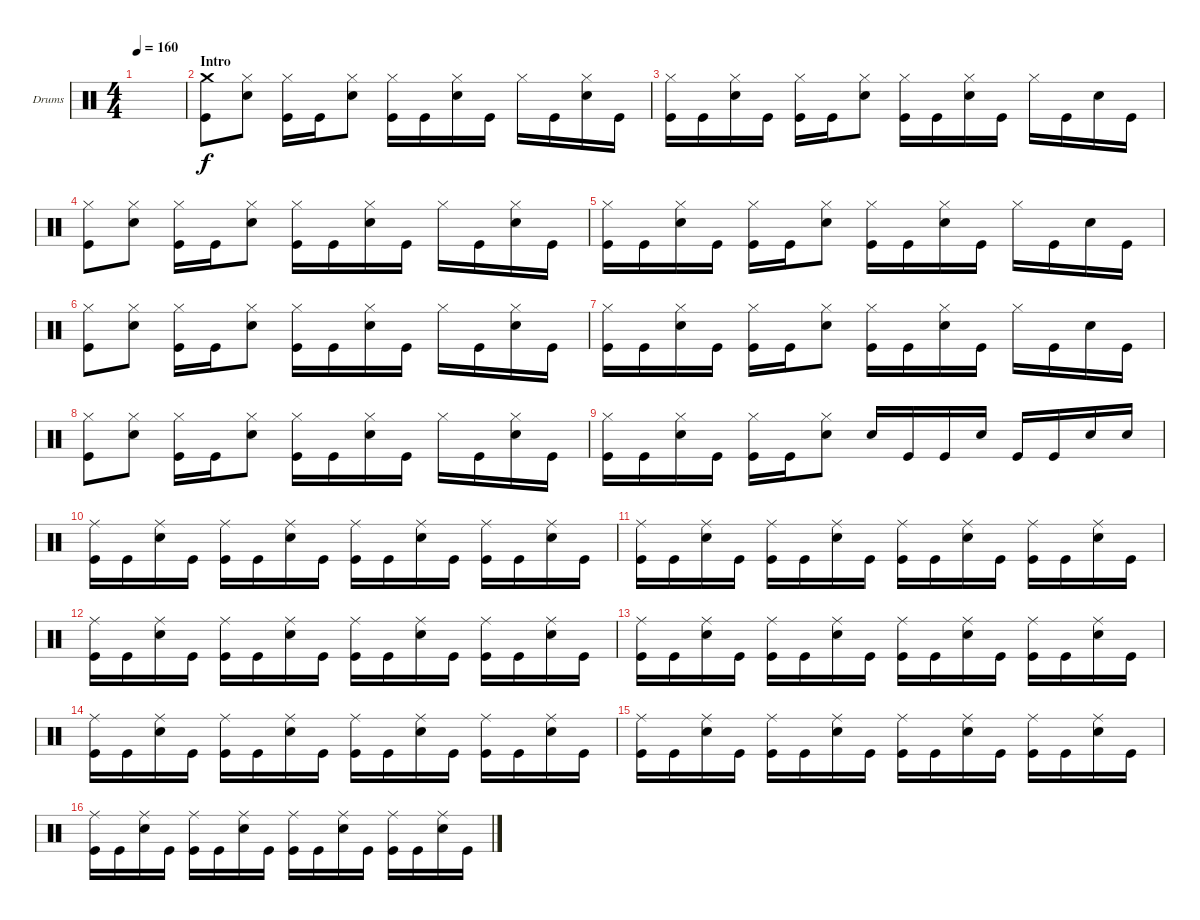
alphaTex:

\defaultSystemsLayout 4
\bracketExtendMode groupsimilarinstruments
\firstSystemTrackNameOrientation horizontal
\otherSystemsTrackNameOrientation horizontal
\track ("Drums" "Drums") {instrument percussion}
\staff {score}
\articulation defaults
\ts (4 4)
\tempo 160
\clef neutral
\scale
0.384906
\ks c
|
\section ("" "Intro")
\scale
0.4
\ks aminor
("Kick (hit)" "Crash medium (hit)").8 ("Snare (hit) 2" "Hi-Hat (closed)").8 ("Kick (hit)" "Hi-Hat (closed)").16 "Kick (hit)".16 ("Snare (hit) 2" "Hi-Hat (closed)").8 ("Kick (hit)" "Hi-Hat (closed)").16 "Kick (hit)".16 ("Snare (hit) 2" "Hi-Hat (closed)").16 "Kick (hit)".16 "Hi-Hat (closed)".16 "Kick (hit)".16 ("Snare (hit) 2" "Hi-Hat (closed)").16 "Kick (hit)".16 |
\scale
0.215094 ("Kick (hit)" "Hi-Hat (closed)").16 "Kick (hit)".16 ("Snare (hit) 2" "Hi-Hat (closed)").16 "Kick (hit)".16 ("Kick (hit)" "Hi-Hat (closed)").16 "Kick (hit)".16 ("Snare (hit) 2" "Hi-Hat (closed)").8 ("Kick (hit)" "Hi-Hat (closed)").16 "Kick (hit)".16 ("Snare (hit) 2" "Hi-Hat (closed)").16 "Kick (hit)".16 "Hi-Hat (closed)".16 "Kick (hit)".16 "Snare (hit) 2".16 "Kick (hit)".16 |
\scale
0.333333 ("Kick (hit)" "Hi-Hat (closed)").8 ("Snare (hit) 2" "Hi-Hat (closed)").8 ("Kick (hit)" "Hi-Hat (closed)").16 "Kick (hit)".16 ("Snare (hit) 2" "Hi-Hat (closed)").8 ("Kick (hit)" "Hi-Hat (closed)").16 "Kick (hit)".16 ("Snare (hit) 2" "Hi-Hat (closed)").16 "Kick (hit)".16 "Hi-Hat (closed)".16 "Kick (hit)".16 ("Snare (hit) 2" "Hi-Hat (closed)").16 "Kick (hit)".16 |
\scale
0.333333 ("Kick (hit)" "Hi-Hat (closed)").16 "Kick (hit)".16 ("Snare (hit) 2" "Hi-Hat (closed)").16 "Kick (hit)".16 ("Kick (hit)" "Hi-Hat (closed)").16 "Kick (hit)".16 ("Snare (hit) 2" "Hi-Hat (closed)").8 ("Kick (hit)" "Hi-Hat (closed)").16 "Kick (hit)".16 ("Snare (hit) 2" "Hi-Hat (closed)").16 "Kick (hit)".16 "Hi-Hat (closed)".16 "Kick (hit)".16 "Snare (hit) 2".16 "Kick (hit)".16 |
\scale
0.333333 ("Kick (hit)" "Hi-Hat (closed)").8 ("Snare (hit) 2" "Hi-Hat (closed)").8 ("Kick (hit)" "Hi-Hat (closed)").16 "Kick (hit)".16 ("Snare (hit) 2" "Hi-Hat (closed)").8 ("Kick (hit)" "Hi-Hat (closed)").16 "Kick (hit)".16 ("Snare (hit) 2" "Hi-Hat (closed)").16 "Kick (hit)".16 "Hi-Hat (closed)".16 "Kick (hit)".16 ("Snare (hit) 2" "Hi-Hat (closed)").16 "Kick (hit)".16 |
\scale
0.333333 ("Kick (hit)" "Hi-Hat (closed)").16 "Kick (hit)".16 ("Snare (hit) 2" "Hi-Hat (closed)").16 "Kick (hit)".16 ("Kick (hit)" "Hi-Hat (closed)").16 "Kick (hit)".16 ("Snare (hit) 2" "Hi-Hat (closed)").8 ("Kick (hit)" "Hi-Hat (closed)").16 "Kick (hit)".16 ("Snare (hit) 2" "Hi-Hat (closed)").16 "Kick (hit)".16 "Hi-Hat (closed)".16 "Kick (hit)".16 "Snare (hit) 2".16 "Kick (hit)".16 |
\scale
0.333333 ("Kick (hit)" "Hi-Hat (closed)").8 ("Snare (hit) 2" "Hi-Hat (closed)").8 ("Kick (hit)" "Hi-Hat (closed)").16 "Kick (hit)".16 ("Snare (hit) 2" "Hi-Hat (closed)").8 ("Kick (hit)" "Hi-Hat (closed)").16 "Kick (hit)".16 ("Snare (hit) 2" "Hi-Hat (closed)").16 "Kick (hit)".16 "Hi-Hat (closed)".16 "Kick (hit)".16 ("Snare (hit) 2" "Hi-Hat (closed)").16 "Kick (hit)".16 |
\scale
0.333333 ("Kick (hit)" "Hi-Hat (closed)").16 "Kick (hit)".16 ("Snare (hit) 2" "Hi-Hat (closed)").16 "Kick (hit)".16 ("Kick (hit)" "Hi-Hat (closed)").16 "Kick (hit)".16 ("Snare (hit) 2" "Hi-Hat (closed)").8 "Snare (hit) 2".16 "Kick (hit)".16 "Kick (hit)".16 "Snare (hit) 2".16 "Kick (hit)".16 "Kick (hit)".16 "Snare (hit) 2".16 "Snare (hit) 2".16 |
\scale
0.333333 ("Kick (hit)" "Ride (middle)").16 "Kick (hit)".16 ("Snare (hit) 2" "Ride (middle)").16 "Kick (hit)".16 ("Kick (hit)" "Ride (middle)").16 "Kick (hit)".16 ("Snare (hit) 2" "Ride (middle)").16 "Kick (hit)".16 ("Kick (hit)" "Ride (middle)").16 "Kick (hit)".16 ("Snare (hit) 2" "Ride (middle)").16 "Kick (hit)".16 ("Kick (hit)" "Ride (middle)").16 "Kick (hit)".16 ("Snare (hit) 2" "Ride (middle)").16 "Kick (hit)".16 |
\scale
0.333333 ("Kick (hit)" "Ride (middle)").16 "Kick (hit)".16 ("Snare (hit) 2" "Ride (middle)").16 "Kick (hit)".16 ("Kick (hit)" "Ride (middle)").16 "Kick (hit)".16 ("Snare (hit) 2" "Ride (middle)").16 "Kick (hit)".16 ("Kick (hit)" "Ride (middle)").16 "Kick (hit)".16 ("Snare (hit) 2" "Ride (middle)").16 "Kick (hit)".16 ("Kick (hit)" "Ride (middle)").16 "Kick (hit)".16 ("Snare (hit) 2" "Ride (middle)").16 "Kick (hit)".16 |
\scale
0.333333 ("Kick (hit)" "Ride (middle)").16 "Kick (hit)".16 ("Snare (hit) 2" "Ride (middle)").16 "Kick (hit)".16 ("Kick (hit)" "Ride (middle)").16 "Kick (hit)".16 ("Snare (hit) 2" "Ride (middle)").16 "Kick (hit)".16 ("Kick (hit)" "Ride (middle)").16 "Kick (hit)".16 ("Snare (hit) 2" "Ride (middle)").16 "Kick (hit)".16 ("Kick (hit)" "Ride (middle)").16 "Kick (hit)".16 ("Snare (hit) 2" "Ride (middle)").16 "Kick (hit)".16 |
\scale
0.333333 ("Kick (hit)" "Ride (middle)").16 "Kick (hit)".16 ("Snare (hit) 2" "Ride (middle)").16 "Kick (hit)".16 ("Kick (hit)" "Ride (middle)").16 "Kick (hit)".16 ("Snare (hit) 2" "Ride (middle)").16 "Kick (hit)".16 ("Kick (hit)" "Ride (middle)").16 "Kick (hit)".16 ("Snare (hit) 2" "Ride (middle)").16 "Kick (hit)".16 ("Kick (hit)" "Ride (middle)").16 "Kick (hit)".16 ("Snare (hit) 2" "Ride (middle)").16 "Kick (hit)".16 |
\scale
0.333333 ("Kick (hit)" "Ride (middle)").16 "Kick (hit)".16 ("Snare (hit) 2" "Ride (middle)").16 "Kick (hit)".16 ("Kick (hit)" "Ride (middle)").16 "Kick (hit)".16 ("Snare (hit) 2" "Ride (middle)").16 "Kick (hit)".16 ("Kick (hit)" "Ride (middle)").16 "Kick (hit)".16 ("Snare (hit) 2" "Ride (middle)").16 "Kick (hit)".16 ("Kick (hit)" "Ride (middle)").16 "Kick (hit)".16 ("Snare (hit) 2" "Ride (middle)").16 "Kick (hit)".16 |
\scale
0.333333 ("Kick (hit)" "Ride (middle)").16 "Kick (hit)".16 ("Snare (hit) 2" "Ride (middle)").16 "Kick (hit)".16 ("Kick (hit)" "Ride (middle)").16 "Kick (hit)".16 ("Snare (hit) 2" "Ride (middle)").16 "Kick (hit)".16 ("Kick (hit)" "Ride (middle)").16 "Kick (hit)".16 ("Snare (hit) 2" "Ride (middle)").16 "Kick (hit)".16 ("Kick (hit)" "Ride (middle)").16 "Kick (hit)".16 ("Snare (hit) 2" "Ride (middle)").16 "Kick (hit)".16 |
\scale
0.333333 ("Kick (hit)" "Ride (middle)").16 "Kick (hit)".16 ("Snare (hit) 2" "Ride (middle)").16 "Kick (hit)".16 ("Kick (hit)" "Ride (middle)").16 "Kick (hit)".16 ("Snare (hit) 2" "Ride (middle)").16 "Kick (hit)".16 ("Kick (hit)" "Ride (middle)").16 "Kick (hit)".16 ("Snare (hit) 2" "Ride (middle)").16 "Kick (hit)".16 ("Kick (hit)" "Ride (middle)").16 "Kick (hit)".16 ("Snare (hit) 2" "Ride (middle)").16 "Kick (hit)".16
